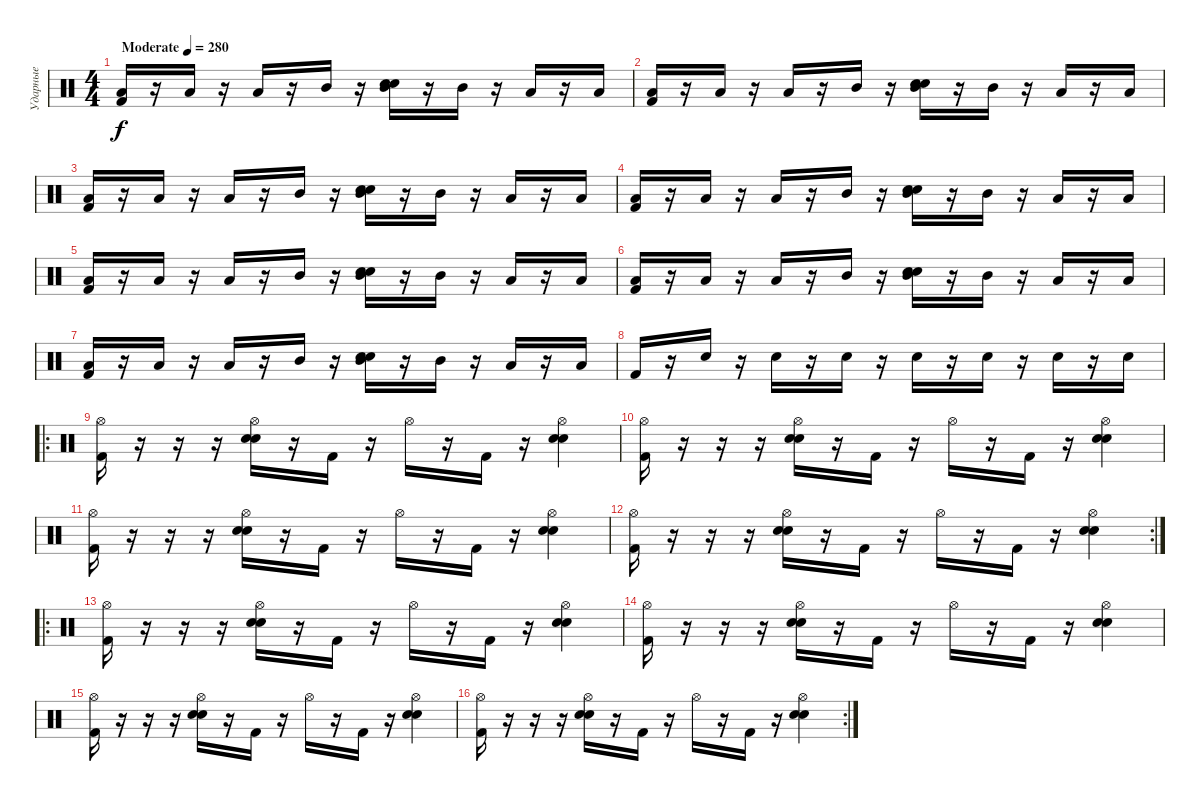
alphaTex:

\track ("Ударные" "Ударные") {instrument percussion}
\staff {score}
\articulation defaults
\ts (4 4)
\tempo (280 "Moderate")
\clef neutral
\ks c
("Low Tom (hit)" "Kick (hit) 2").16{dy f} r.16 "Low Tom (hit)".16 r.16 "Low Tom (hit)".16 r.16 "Mid Tom (hit)".16 r.16 ("Mid Tom (hit)" "Electric Snare (hit)" "Snare (hit) 2").16 r.16 "Mid Tom (hit)".16 r.16 "Low Tom (hit)".16 r.16 "Low Tom (hit)".16 |
("Low Tom (hit)" "Kick (hit) 2").16 r.16 "Low Tom (hit)".16 r.16 "Low Tom (hit)".16 r.16 "Mid Tom (hit)".16 r.16 ("Mid Tom (hit)" "Electric Snare (hit)" "Snare (hit) 2").16 r.16 "Mid Tom (hit)".16 r.16 "Low Tom (hit)".16 r.16 "Low Tom (hit)".16 |
("Low Tom (hit)" "Kick (hit) 2").16 r.16 "Low Tom (hit)".16 r.16 "Low Tom (hit)".16 r.16 "Mid Tom (hit)".16 r.16 ("Mid Tom (hit)" "Electric Snare (hit)" "Snare (hit) 2").16 r.16 "Mid Tom (hit)".16 r.16 "Low Tom (hit)".16 r.16 "Low Tom (hit)".16 |
("Low Tom (hit)" "Kick (hit) 2").16 r.16 "Low Tom (hit)".16 r.16 "Low Tom (hit)".16 r.16 "Mid Tom (hit)".16 r.16 ("Mid Tom (hit)" "Electric Snare (hit)" "Snare (hit) 2").16 r.16 "Mid Tom (hit)".16 r.16 "Low Tom (hit)".16 r.16 "Low Tom (hit)".16 |
("Low Tom (hit)" "Kick (hit) 2").16 r.16 "Low Tom (hit)".16 r.16 "Low Tom (hit)".16 r.16 "Mid Tom (hit)".16 r.16 ("Mid Tom (hit)" "Electric Snare (hit)" "Snare (hit) 2").16 r.16 "Mid Tom (hit)".16 r.16 "Low Tom (hit)".16 r.16 "Low Tom (hit)".16 |
("Low Tom (hit)" "Kick (hit) 2").16 r.16 "Low Tom (hit)".16 r.16 "Low Tom (hit)".16 r.16 "Mid Tom (hit)".16 r.16 ("Mid Tom (hit)" "Electric Snare (hit)" "Snare (hit) 2").16 r.16 "Mid Tom (hit)".16 r.16 "Low Tom (hit)".16 r.16 "Low Tom (hit)".16 |
("Low Tom (hit)" "Kick (hit) 2").16 r.16 "Low Tom (hit)".16 r.16 "Low Tom (hit)".16 r.16 "Mid Tom (hit)".16 r.16 ("Mid Tom (hit)" "Electric Snare (hit)" "Snare (hit) 2").16 r.16 "Mid Tom (hit)".16 r.16 "Low Tom (hit)".16 r.16 "Low Tom (hit)".16 |
"Kick (hit) 2".16 r.16 "Electric Snare (hit)".16 r.16 "Electric Snare (hit)".16 r.16 "Electric Snare (hit)".16 r.16 "Electric Snare (hit)".16 r.16 "Electric Snare (hit)".16 r.16 "Electric Snare (hit)".16 r.16 "Electric Snare (hit)".16 |
\ro
("Hi-Hat (open)" "Kick (hit) 2").16 r.16 r.16 r.16 ("Hi-Hat (open)" "Electric Snare (hit)" "Snare (hit) 2").16 r.16 "Kick (hit) 2".16 r.16 "Hi-Hat (open)".16 r.16 "Kick (hit) 2".16 r.16 ("Hi-Hat (open)" "Electric Snare (hit)" "Snare (hit) 2").4 |
("Hi-Hat (open)" "Kick (hit) 2").16 r.16 r.16 r.16 ("Hi-Hat (open)" "Electric Snare (hit)" "Snare (hit) 2").16 r.16 "Kick (hit) 2".16 r.16 "Hi-Hat (open)".16 r.16 "Kick (hit) 2".16 r.16 ("Hi-Hat (open)" "Electric Snare (hit)" "Snare (hit) 2").4 |
("Hi-Hat (open)" "Kick (hit) 2").16 r.16 r.16 r.16 ("Hi-Hat (open)" "Electric Snare (hit)" "Snare (hit) 2").16 r.16 "Kick (hit) 2".16 r.16 "Hi-Hat (open)".16 r.16 "Kick (hit) 2".16 r.16 ("Hi-Hat (open)" "Electric Snare (hit)" "Snare (hit) 2").4 |
\rc 2
("Hi-Hat (open)" "Kick (hit) 2").16 r.16 r.16 r.16 ("Hi-Hat (open)" "Electric Snare (hit)" "Snare (hit) 2").16 r.16 "Kick (hit) 2".16 r.16 "Hi-Hat (open)".16 r.16 "Kick (hit) 2".16 r.16 ("Hi-Hat (open)" "Electric Snare (hit)" "Snare (hit) 2").4 |
\ro
("Hi-Hat (open)" "Kick (hit) 2").16 r.16 r.16 r.16 ("Hi-Hat (open)" "Electric Snare (hit)" "Snare (hit) 2").16 r.16 "Kick (hit) 2".16 r.16 "Hi-Hat (open)".16 r.16 "Kick (hit) 2".16 r.16 ("Hi-Hat (open)" "Electric Snare (hit)" "Snare (hit) 2").4 |
("Hi-Hat (open)" "Kick (hit) 2").16 r.16 r.16 r.16 ("Hi-Hat (open)" "Electric Snare (hit)" "Snare (hit) 2").16 r.16 "Kick (hit) 2".16 r.16 "Hi-Hat (open)".16 r.16 "Kick (hit) 2".16 r.16 ("Hi-Hat (open)" "Electric Snare (hit)" "Snare (hit) 2").4 |
("Hi-Hat (open)" "Kick (hit) 2").16 r.16 r.16 r.16 ("Hi-Hat (open)" "Electric Snare (hit)" "Snare (hit) 2").16 r.16 "Kick (hit) 2".16 r.16 "Hi-Hat (open)".16 r.16 "Kick (hit) 2".16 r.16 ("Hi-Hat (open)" "Electric Snare (hit)" "Snare (hit) 2").4 |
\rc 2
("Hi-Hat (open)" "Kick (hit) 2").16 r.16 r.16 r.16 ("Hi-Hat (open)" "Electric Snare (hit)" "Snare (hit) 2").16 r.16 "Kick (hit) 2".16 r.16 "Hi-Hat (open)".16 r.16 "Kick (hit) 2".16 r.16 ("Hi-Hat (open)" "Electric Snare (hit)" "Snare (hit) 2").4
